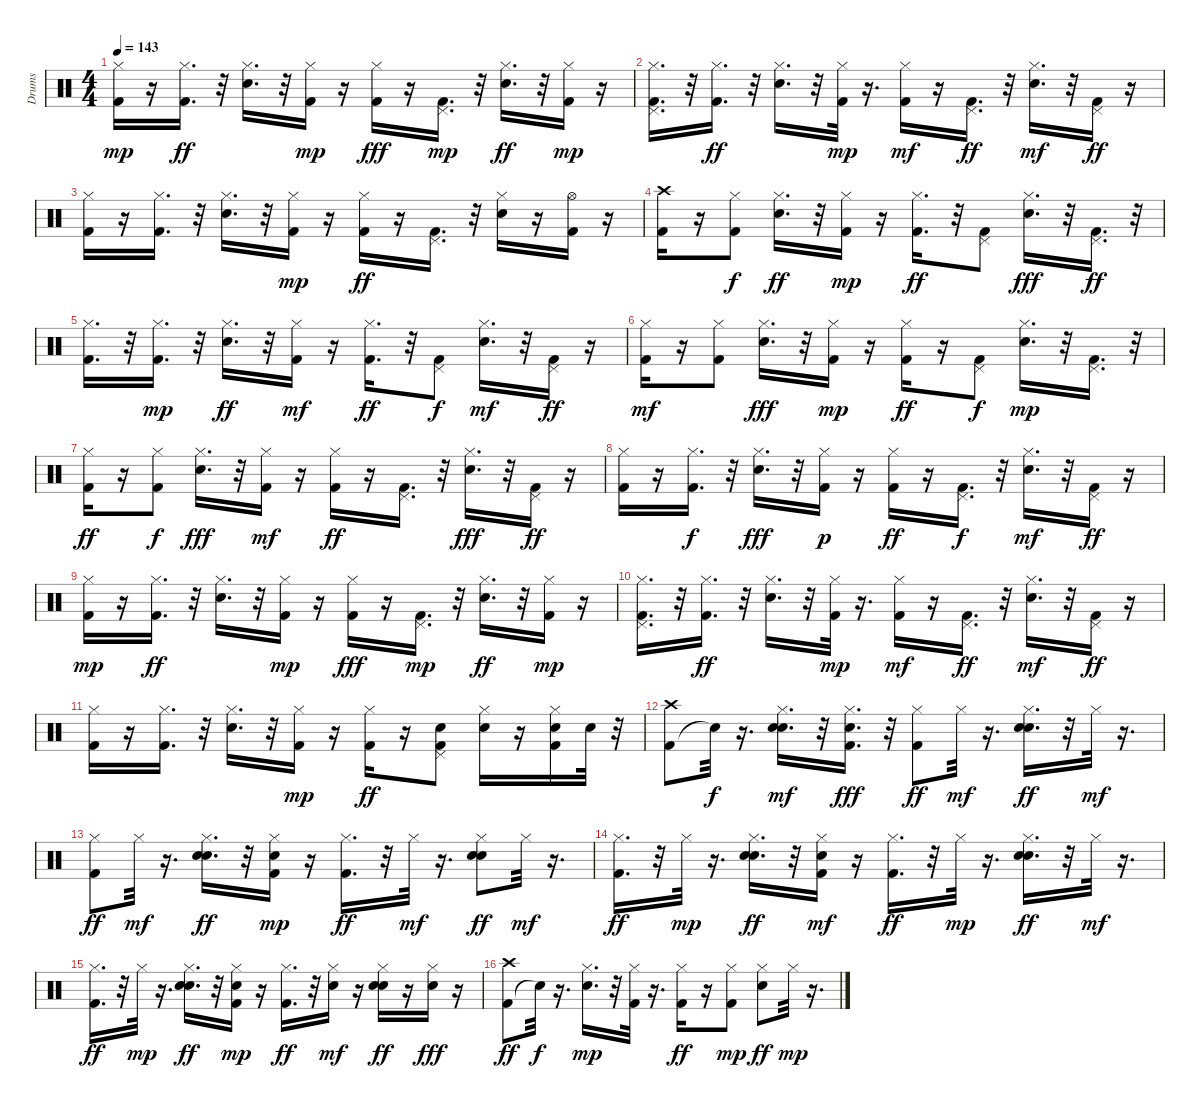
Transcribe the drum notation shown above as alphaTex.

\track ("Drums               " "Drums     ") {instrument percussion}
\staff {score}
\articulation defaults
\ts (4 4)
\tempo 143
\clef neutral
\ks c
("Kick (hit) 2" "Hi-Hat (closed)").16{dy mp} r.16 ("Kick (hit) 2" "Hi-Hat (closed)").16{d dy ff} r.32 ("Snare (hit) 2" "Hi-Hat (closed)").16{d} r.32 ("Kick (hit) 2" "Hi-Hat (closed)").16{dy mp} r.16 ("Kick (hit) 2" "Hi-Hat (closed)").16{dy fff} r.16 ("Kick (hit) 2" "Pedal Hi-Hat (hit)").16{d dy mp} r.32 ("Snare (hit) 2" "Hi-Hat (closed)").16{d dy ff} r.32 ("Kick (hit) 2" "Hi-Hat (closed)").16{dy mp} r.16 |
("Kick (hit) 2" "Hi-Hat (closed)" "Pedal Hi-Hat (hit)").16{d} r.32 ("Kick (hit) 2" "Hi-Hat (closed)").16{d dy ff} r.32 ("Snare (hit) 2" "Hi-Hat (closed)").16{d} r.32 ("Kick (hit) 2" "Hi-Hat (closed)").32{dy mp} r.16{d} ("Kick (hit) 2" "Hi-Hat (closed)").16{dy mf} r.16 ("Kick (hit) 2" "Pedal Hi-Hat (hit)").16{d dy ff} r.32 ("Snare (hit) 2" "Hi-Hat (closed)").16{d dy mf} r.32 ("Kick (hit) 2" "Pedal Hi-Hat (hit)").16{dy ff} r.16 |
("Kick (hit) 2" "Hi-Hat (closed)").16 r.16 ("Kick (hit) 2" "Hi-Hat (closed)").16{d} r.32 ("Snare (hit) 2" "Hi-Hat (closed)").16{d} r.32 ("Kick (hit) 2" "Hi-Hat (closed)").16{dy mp} r.16 ("Kick (hit) 2" "Hi-Hat (closed)").16{dy ff} r.16 ("Kick (hit) 2" "Pedal Hi-Hat (hit)").16{d} r.32 ("Snare (hit) 2" "Hi-Hat (closed)").16 r.16 ("Kick (hit) 2" "Hi-Hat (open)").16 r.16 |
("Kick (hit) 2" "Crash high (hit)").16 r.16 ("Kick (hit) 2" "Hi-Hat (closed)").8{dy f} ("Snare (hit) 2" "Hi-Hat (closed)").16{d dy ff} r.32 ("Kick (hit) 2" "Hi-Hat (closed)").16{dy mp} r.16 ("Kick (hit) 2" "Hi-Hat (closed)").16{d dy ff} r.32 ("Kick (hit) 2" "Pedal Hi-Hat (hit)").8 ("Snare (hit) 2" "Hi-Hat (closed)").16{d dy fff} r.32 ("Kick (hit) 2" "Pedal Hi-Hat (hit)").16{d dy ff} r.32 |
("Kick (hit) 2" "Hi-Hat (closed)").16{d} r.32 ("Kick (hit) 2" "Hi-Hat (closed)").16{d dy mp} r.32 ("Snare (hit) 2" "Hi-Hat (closed)").16{d dy ff} r.32 ("Kick (hit) 2" "Hi-Hat (closed)").16{dy mf} r.16 ("Kick (hit) 2" "Hi-Hat (closed)").16{d dy ff} r.32 ("Kick (hit) 2" "Pedal Hi-Hat (hit)").8{dy f} ("Snare (hit) 2" "Hi-Hat (closed)").16{d dy mf} r.32 ("Kick (hit) 2" "Pedal Hi-Hat (hit)").16{dy ff} r.16 |
("Kick (hit) 2" "Hi-Hat (closed)").16{dy mf} r.16 ("Kick (hit) 2" "Hi-Hat (closed)").8 ("Snare (hit) 2" "Hi-Hat (closed)").16{d dy fff} r.32 ("Kick (hit) 2" "Hi-Hat (closed)").16{dy mp} r.16 ("Kick (hit) 2" "Hi-Hat (closed)").16{dy ff} r.16 ("Kick (hit) 2" "Pedal Hi-Hat (hit)").8{dy f} ("Snare (hit) 2" "Hi-Hat (closed)").16{d dy mp} r.32 ("Kick (hit) 2" "Pedal Hi-Hat (hit)").16{d} r.32 |
("Kick (hit) 2" "Hi-Hat (closed)").16{dy ff} r.16 ("Kick (hit) 2" "Hi-Hat (closed)").8{dy f} ("Snare (hit) 2" "Hi-Hat (closed)").16{d dy fff} r.32 ("Kick (hit) 2" "Hi-Hat (closed)").16{dy mf} r.16 ("Kick (hit) 2" "Hi-Hat (closed)").16{dy ff} r.16 ("Kick (hit) 2" "Pedal Hi-Hat (hit)").16{d} r.32 ("Snare (hit) 2" "Hi-Hat (closed)").16{d dy fff} r.32 ("Kick (hit) 2" "Pedal Hi-Hat (hit)").16{dy ff} r.16 |
("Kick (hit) 2" "Hi-Hat (closed)").16 r.16 ("Kick (hit) 2" "Hi-Hat (closed)").16{d dy f} r.32 ("Snare (hit) 2" "Hi-Hat (closed)").16{d dy fff} r.32 ("Kick (hit) 2" "Hi-Hat (closed)").16{dy p} r.16 ("Kick (hit) 2" "Hi-Hat (closed)").16{dy ff} r.16 ("Kick (hit) 2" "Pedal Hi-Hat (hit)").16{d dy f} r.32 ("Snare (hit) 2" "Hi-Hat (closed)").16{d dy mf} r.32 ("Kick (hit) 2" "Pedal Hi-Hat (hit)").16{dy ff} r.16 |
("Kick (hit) 2" "Hi-Hat (closed)").16{dy mp} r.16 ("Kick (hit) 2" "Hi-Hat (closed)").16{d dy ff} r.32 ("Snare (hit) 2" "Hi-Hat (closed)").16{d} r.32 ("Kick (hit) 2" "Hi-Hat (closed)").16{dy mp} r.16 ("Kick (hit) 2" "Hi-Hat (closed)").16{dy fff} r.16 ("Kick (hit) 2" "Pedal Hi-Hat (hit)").16{d dy mp} r.32 ("Snare (hit) 2" "Hi-Hat (closed)").16{d dy ff} r.32 ("Kick (hit) 2" "Hi-Hat (closed)").16{dy mp} r.16 |
("Kick (hit) 2" "Hi-Hat (closed)" "Pedal Hi-Hat (hit)").16{d} r.32 ("Kick (hit) 2" "Hi-Hat (closed)").16{d dy ff} r.32 ("Snare (hit) 2" "Hi-Hat (closed)").16{d} r.32 ("Kick (hit) 2" "Hi-Hat (closed)").32{dy mp} r.16{d} ("Kick (hit) 2" "Hi-Hat (closed)").16{dy mf} r.16 ("Kick (hit) 2" "Pedal Hi-Hat (hit)").16{d dy ff} r.32 ("Snare (hit) 2" "Hi-Hat (closed)").16{d dy mf} r.32 ("Kick (hit) 2" "Pedal Hi-Hat (hit)").16{dy ff} r.16 |
("Kick (hit) 2" "Hi-Hat (closed)").16 r.16 ("Kick (hit) 2" "Hi-Hat (closed)").16{d} r.32 ("Snare (hit) 2" "Hi-Hat (closed)").16{d} r.32 ("Kick (hit) 2" "Hi-Hat (closed)").16{dy mp} r.16 ("Kick (hit) 2" "Hi-Hat (closed)").16{dy ff} r.16 ("Kick (hit) 2" "Snare (hit) 2" "Pedal Hi-Hat (hit)").8 ("Snare (hit) 2" "Hi-Hat (closed)").16 r.16 ("Kick (hit) 2" "Snare (hit) 2" "Hi-Hat (closed)").16 "Snare (hit) 2".32 r.32 |
("Kick (hit) 2" "Crash high (hit)").8 "Snare (hit)"{t}.32{dy f} r.16{d} ("Snare (hit) 2" "Hand Clap (hit)" "Hi-Hat (closed)").16{d dy mf} r.32 ("Kick (hit) 2" "Hand Clap (hit)" "Hi-Hat (closed)").16{d dy fff} r.32 ("Kick (hit) 2" "Hi-Hat (closed)").8{dy ff} "Hi-Hat (closed)".32{dy mf} r.16{d} ("Snare (hit) 2" "Hand Clap (hit)" "Hi-Hat (closed)").16{d dy ff} r.32 "Hi-Hat (closed)".32{dy mf} r.16{d} |
("Kick (hit) 2" "Hi-Hat (closed)").8{dy ff} "Hi-Hat (closed)".32{dy mf} r.16{d} ("Snare (hit) 2" "Hand Clap (hit)" "Hi-Hat (closed)").16{d dy ff} r.32 ("Kick (hit) 2" "Hand Clap (hit)" "Hi-Hat (closed)").16{dy mp} r.16 ("Kick (hit) 2" "Hi-Hat (closed)").16{d dy ff} r.32 "Hi-Hat (closed)".32{dy mf} r.16{d} ("Snare (hit) 2" "Hand Clap (hit)" "Hi-Hat (closed)").8{dy ff} "Hi-Hat (closed)".32{dy mf} r.16{d} |
("Kick (hit) 2" "Hi-Hat (closed)").16{d dy ff} r.32 "Hi-Hat (closed)".32{dy mp} r.16{d} ("Snare (hit) 2" "Hand Clap (hit)" "Hi-Hat (closed)").16{d dy ff} r.32 ("Kick (hit) 2" "Hand Clap (hit)" "Hi-Hat (closed)").16{dy mf} r.16 ("Kick (hit) 2" "Hi-Hat (closed)").16{d dy ff} r.32 "Hi-Hat (closed)".32{dy mp} r.16{d} ("Snare (hit) 2" "Hand Clap (hit)" "Hi-Hat (closed)").16{d dy ff} r.32 "Hi-Hat (closed)".32{dy mf} r.16{d} |
("Kick (hit) 2" "Hi-Hat (closed)").16{d dy ff} r.32 "Hi-Hat (closed)".32{dy mp} r.16{d} ("Snare (hit) 2" "Hand Clap (hit)" "Hi-Hat (closed)").16{d dy ff} r.32 ("Kick (hit) 2" "Hand Clap (hit)" "Hi-Hat (closed)").16{dy mp} r.16 ("Kick (hit) 2" "Hi-Hat (closed)").16{d dy ff} r.32 ("Snare (hit) 2" "Hi-Hat (closed)").16{dy mf} r.16 ("Snare (hit) 2" "Hand Clap (hit)" "Hi-Hat (closed)").16{dy ff} r.16 ("Snare (hit) 2" "Hi-Hat (closed)").16{dy fff} r.16 |
("Kick (hit) 2" "Crash high (hit)").8{dy ff} "Snare (hit)"{t}.32{dy f} r.16{d} ("Snare (hit) 2" "Hi-Hat (closed)").16{d dy mp} r.32 ("Kick (hit) 2" "Hi-Hat (closed)").32 r.16{d} ("Kick (hit) 2" "Hi-Hat (closed)").16{dy ff} r.16 ("Kick (hit) 2" "Hi-Hat (closed)").8{dy mp} ("Snare (hit) 2" "Hi-Hat (closed)").8{dy ff} "Hi-Hat (closed)".32{dy mp} r.16{d}
